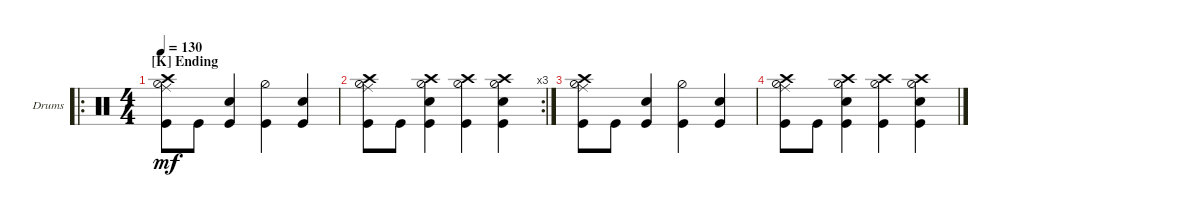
\defaultSystemsLayout 4
\bracketExtendMode groupsimilarinstruments
\firstSystemTrackNameOrientation horizontal
\otherSystemsTrackNameOrientation horizontal
\track ("Drumkit" "Drums") {instrument percussion}
\staff {score}
\articulation defaults
\ro
\ts (4 4)
\section ("K" "Ending")
\tempo 130
\clef neutral
\ks c
("Crash high (hit)" "Ride (middle)" "Kick (hit)" "Hi-Hat (half)").8{dy mf} "Kick (hit)".8 ("Snare (hit) 2" "Kick (hit)").4 ("Kick (hit)" "Hi-Hat (half)").4 ("Snare (hit) 2" "Kick (hit)").4 |
\rc 3
("Crash high (hit)" "Ride (middle)" "Kick (hit)" "Hi-Hat (half)").8 "Kick (hit)".8 ("Snare (hit) 2" "Kick (hit)" "Hi-Hat (half)" "Crash high (hit)").4 ("Kick (hit)" "Hi-Hat (half)" "Crash high (hit)").4 ("Snare (hit) 2" "Kick (hit)" "Hi-Hat (half)" "Crash high (hit)").4 |
("Crash high (hit)" "Ride (middle)" "Kick (hit)" "Hi-Hat (half)").8 "Kick (hit)".8 ("Snare (hit) 2" "Kick (hit)").4 ("Kick (hit)" "Hi-Hat (half)").4 ("Snare (hit) 2" "Kick (hit)").4 |
("Crash high (hit)" "Ride (middle)" "Kick (hit)" "Hi-Hat (half)").8 "Kick (hit)".8 ("Snare (hit) 2" "Kick (hit)" "Hi-Hat (half)" "Crash high (hit)").4 ("Kick (hit)" "Hi-Hat (half)" "Crash high (hit)").4 ("Snare (hit) 2" "Kick (hit)" "Hi-Hat (half)" "Crash high (hit)").4
